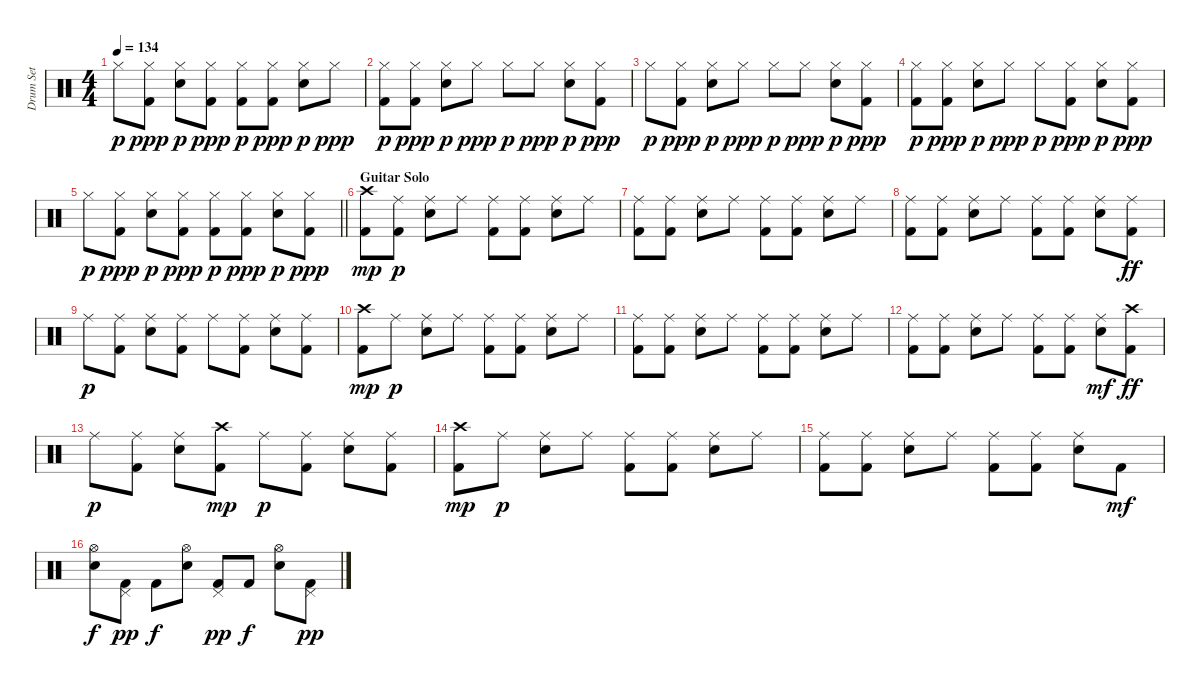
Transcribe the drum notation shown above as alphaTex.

\track ("Drum Set" "Drum Set") {instrument percussion}
\staff {score}
\articulation defaults
\ts (4 4)
\tempo 134
\clef neutral
\ks c "Hi-Hat (closed)".8{dy p}
("Hi-Hat (closed)" "Kick (hit) 2").8{dy ppp} ("Hi-Hat (closed)" "Electric Snare (hit)").8{dy p} ("Hi-Hat (closed)" "Kick (hit) 2").8{dy ppp} ("Hi-Hat (closed)" "Kick (hit) 2").8{dy p} ("Hi-Hat (closed)" "Kick (hit) 2").8{dy ppp} ("Hi-Hat (closed)" "Electric Snare (hit)").8{dy p} "Hi-Hat (closed)".8{dy ppp} |
("Hi-Hat (closed)" "Kick (hit) 2").8{dy p} ("Hi-Hat (closed)" "Kick (hit) 2").8{dy ppp} ("Hi-Hat (closed)" "Electric Snare (hit)").8{dy p} "Hi-Hat (closed)".8{dy ppp} "Hi-Hat (closed)".8{dy p} "Hi-Hat (closed)".8{dy ppp} ("Hi-Hat (closed)" "Electric Snare (hit)").8{dy p} ("Hi-Hat (closed)" "Kick (hit) 2").8{dy ppp} |
"Hi-Hat (closed)".8{dy p} ("Hi-Hat (closed)" "Kick (hit) 2").8{dy ppp} ("Hi-Hat (closed)" "Electric Snare (hit)").8{dy p} "Hi-Hat (closed)".8{dy ppp} "Hi-Hat (closed)".8{dy p} "Hi-Hat (closed)".8{dy ppp} ("Hi-Hat (closed)" "Electric Snare (hit)").8{dy p} ("Hi-Hat (closed)" "Kick (hit) 2").8{dy ppp} |
("Hi-Hat (closed)" "Kick (hit) 2").8{dy p} ("Hi-Hat (closed)" "Kick (hit) 2").8{dy ppp} ("Hi-Hat (closed)" "Electric Snare (hit)").8{dy p} "Hi-Hat (closed)".8{dy ppp} "Hi-Hat (closed)".8{dy p} ("Hi-Hat (closed)" "Kick (hit) 2").8{dy ppp} ("Hi-Hat (closed)" "Electric Snare (hit)").8{dy p} ("Hi-Hat (closed)" "Kick (hit) 2").8{dy ppp} |
\barLineRight lightlight "Hi-Hat (closed)".8{dy p}
("Hi-Hat (closed)" "Kick (hit) 2").8{dy ppp} ("Hi-Hat (closed)" "Electric Snare (hit)").8{dy p} ("Hi-Hat (closed)" "Kick (hit) 2").8{dy ppp} ("Hi-Hat (closed)" "Kick (hit) 2").8{dy p} ("Hi-Hat (closed)" "Kick (hit) 2").8{dy ppp} ("Hi-Hat (closed)" "Electric Snare (hit)").8{dy p} ("Hi-Hat (closed)" "Kick (hit) 2").8{dy ppp} |
\section ("" "Guitar Solo")
("Crash high (hit)" "Kick (hit) 2").8{dy mp} ("Ride (middle)" "Kick (hit) 2").8{dy p} ("Ride (middle)" "Electric Snare (hit)").8 "Ride (middle)".8 ("Ride (middle)" "Kick (hit) 2").8 ("Ride (middle)" "Kick (hit) 2").8 ("Ride (middle)" "Electric Snare (hit)").8 "Ride (middle)".8 |
("Ride (middle)" "Kick (hit) 2").8 ("Ride (middle)" "Kick (hit) 2").8 ("Ride (middle)" "Electric Snare (hit)").8 "Ride (middle)".8 ("Ride (middle)" "Kick (hit) 2").8 ("Ride (middle)" "Kick (hit) 2").8 ("Ride (middle)" "Electric Snare (hit)").8 "Ride (middle)".8 |
("Ride (middle)" "Kick (hit) 2").8 ("Ride (middle)" "Kick (hit) 2").8 ("Ride (middle)" "Electric Snare (hit)").8 "Ride (middle)".8 ("Ride (middle)" "Kick (hit) 2").8 ("Ride (middle)" "Kick (hit) 2").8 ("Ride (middle)" "Electric Snare (hit)").8 ("Ride (middle)" "Kick (hit) 2").8{dy ff} |
"Ride (middle)".8{dy p} ("Ride (middle)" "Kick (hit) 2").8 ("Ride (middle)" "Electric Snare (hit)").8 ("Ride (middle)" "Kick (hit) 2").8 "Ride (middle)".8 ("Ride (middle)" "Kick (hit) 2").8 ("Ride (middle)" "Electric Snare (hit)").8 ("Ride (middle)" "Kick (hit) 2").8 |
("Crash high (hit)" "Kick (hit) 2").8{dy mp} "Ride (middle)".8{dy p} ("Ride (middle)" "Electric Snare (hit)").8 "Ride (middle)".8 ("Ride (middle)" "Kick (hit) 2").8 ("Ride (middle)" "Kick (hit) 2").8 ("Ride (middle)" "Electric Snare (hit)").8 "Ride (middle)".8 |
("Ride (middle)" "Kick (hit) 2").8 ("Ride (middle)" "Kick (hit) 2").8 ("Ride (middle)" "Electric Snare (hit)").8 "Ride (middle)".8 ("Ride (middle)" "Kick (hit) 2").8 ("Ride (middle)" "Kick (hit) 2").8 ("Ride (middle)" "Electric Snare (hit)").8 "Ride (middle)".8 |
("Ride (middle)" "Kick (hit) 2").8 ("Ride (middle)" "Kick (hit) 2").8 ("Ride (middle)" "Electric Snare (hit)").8 "Ride (middle)".8 ("Ride (middle)" "Kick (hit) 2").8 ("Ride (middle)" "Kick (hit) 2").8 ("Ride (middle)" "Electric Snare (hit)").8{dy mf} ("Crash high (hit)" "Kick (hit) 2").8{dy ff} |
"Ride (middle)".8{dy p} ("Ride (middle)" "Kick (hit) 2").8 ("Ride (middle)" "Electric Snare (hit)").8 ("Crash high (hit)" "Kick (hit) 2").8{dy mp} "Ride (middle)".8{dy p} ("Ride (middle)" "Kick (hit) 2").8 ("Ride (middle)" "Electric Snare (hit)").8 ("Ride (middle)" "Kick (hit) 2").8 |
("Crash high (hit)" "Kick (hit) 2").8{dy mp} "Ride (middle)".8{dy p} ("Ride (middle)" "Electric Snare (hit)").8 "Ride (middle)".8 ("Ride (middle)" "Kick (hit) 2").8 ("Ride (middle)" "Kick (hit) 2").8 ("Ride (middle)" "Electric Snare (hit)").8 "Ride (middle)".8 |
("Ride (middle)" "Kick (hit) 2").8 ("Ride (middle)" "Kick (hit) 2").8 ("Ride (middle)" "Electric Snare (hit)").8 "Ride (middle)".8 ("Ride (middle)" "Kick (hit) 2").8 ("Ride (middle)" "Kick (hit) 2").8 ("Ride (middle)" "Electric Snare (hit)").8 "Kick (hit) 2".8{dy mf} |
("Electric Snare (hit)" "Hi-Hat (open)").8{dy f} ("Kick (hit) 2" "Pedal Hi-Hat (hit)").8{dy pp} "Kick (hit) 2".8{dy f} ("Electric Snare (hit)" "Hi-Hat (open)").8 ("Kick (hit) 2" "Pedal Hi-Hat (hit)").8{dy pp} "Kick (hit) 2".8{dy f} ("Electric Snare (hit)" "Hi-Hat (open)").8 ("Kick (hit) 2" "Pedal Hi-Hat (hit)").8{dy pp}
